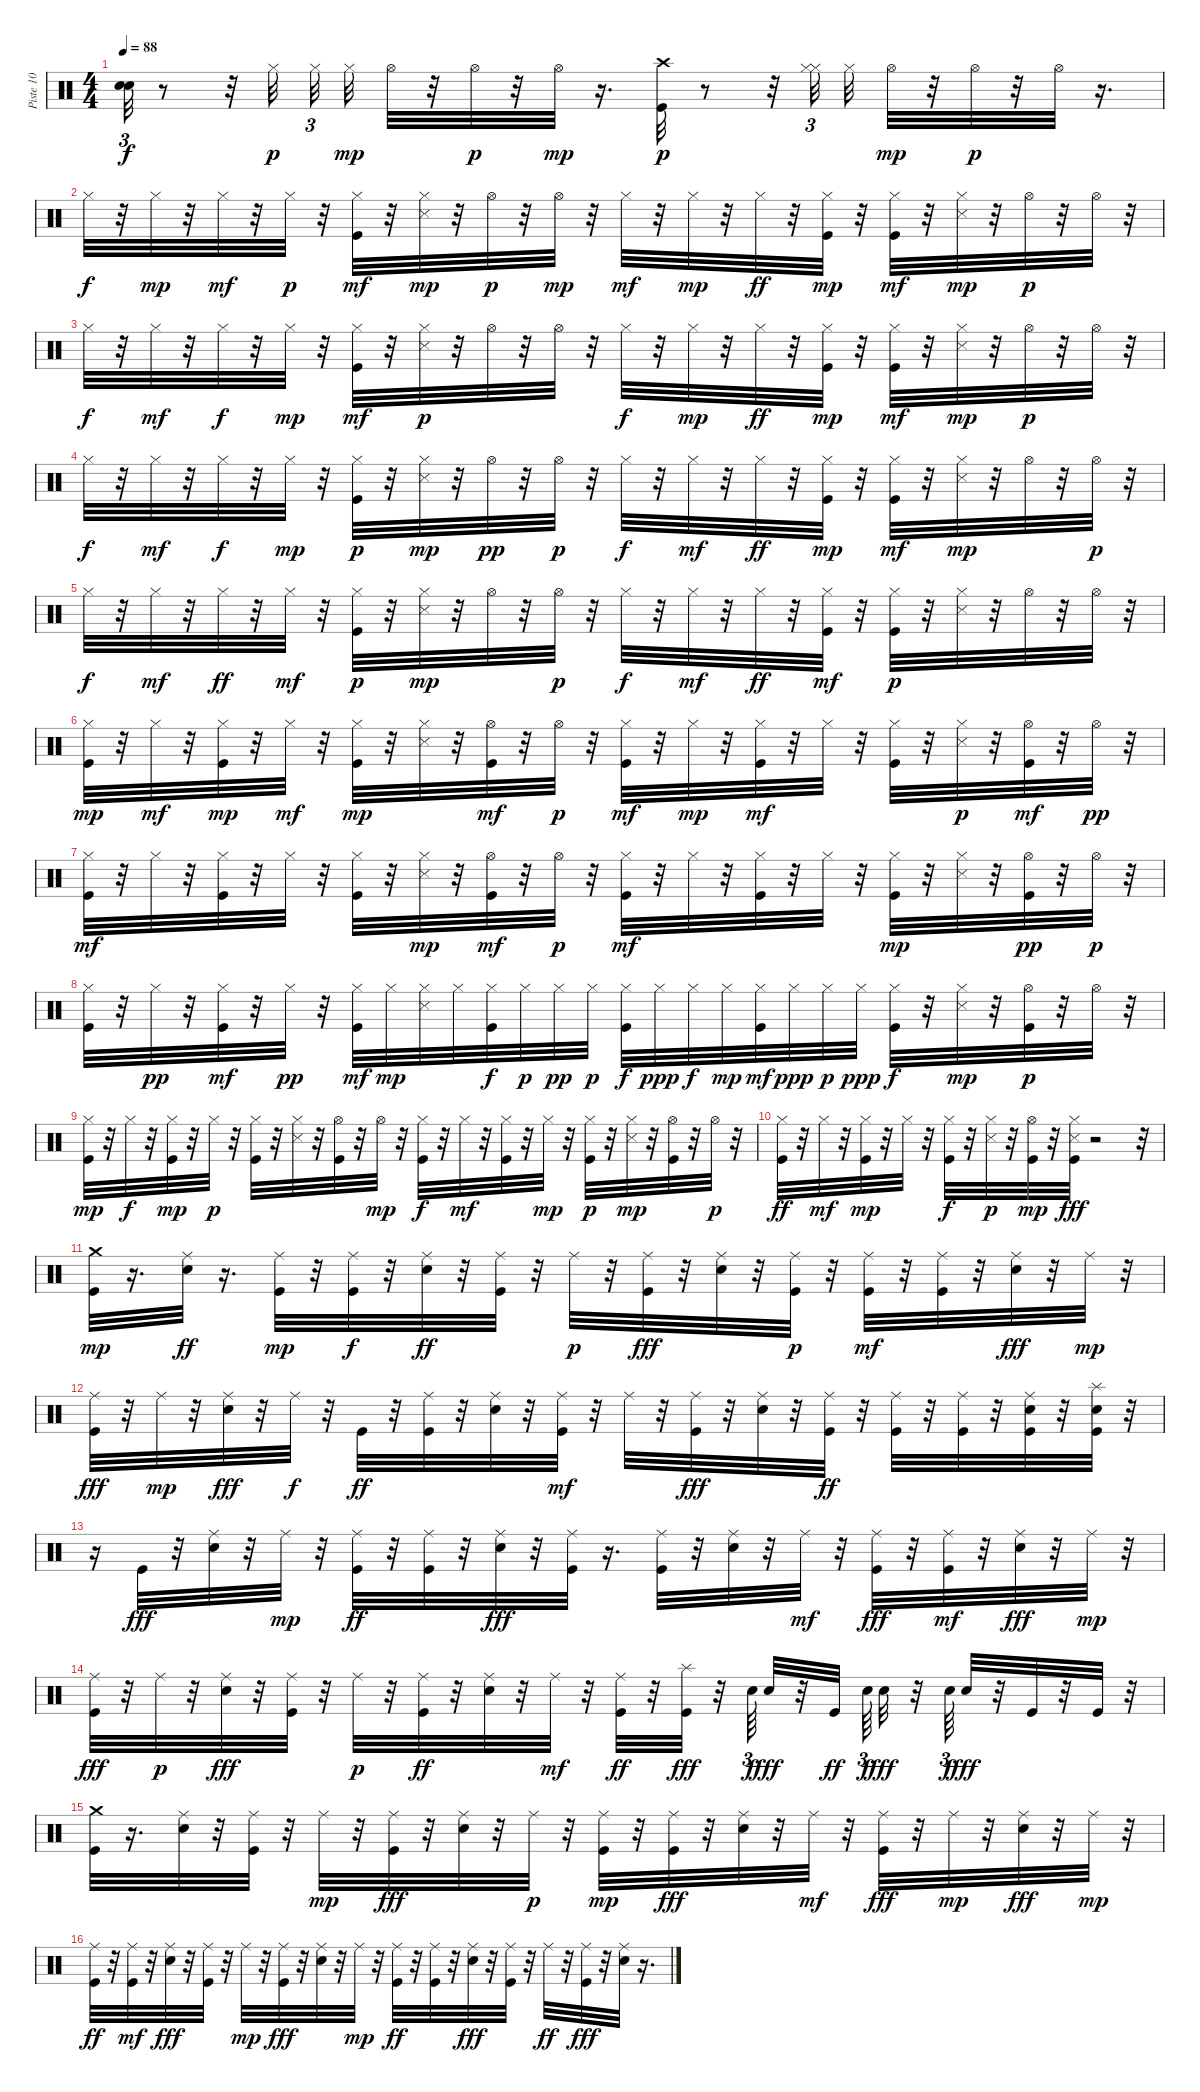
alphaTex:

\track ("Piste 10" "Piste 10") {instrument percussion}
\staff {score}
\articulation defaults
\ts (4 4)
\tempo 88
\clef neutral
\ks c
("Snare (hit)"{t} "Snare (hit)"{t}).32{tu (3 2) dy f} r.8 r.32 "Hi-Hat (closed)".32{dy p} "Hi-Hat (closed)".32{tu (3 2)} "Hi-Hat (closed)".32{dy mp} "Hi-Hat (open)".32 r.32 "Hi-Hat (open)".32{dy p} r.32 "Hi-Hat (open)".32{dy mp} r.16{d} ("Kick (hit)" "Crash high (hit)").32{dy p} r.8 r.32 ("Hi-Hat (closed)" "Hi-Hat (closed)").32{tu (3 2)} "Hi-Hat (closed)".32 "Hi-Hat (open)".32{dy mp} r.32 "Hi-Hat (open)".32{dy p} r.32 "Hi-Hat (open)".32 r.16{d} |
"Hi-Hat (closed)".32{dy f} r.32 "Hi-Hat (closed)".32{dy mp} r.32 "Hi-Hat (closed)".32{dy mf} r.32 "Hi-Hat (closed)".32{dy p} r.32 ("Hi-Hat (closed)" "Kick (hit)").32{dy mf} r.32 ("Hi-Hat (closed)" "Snare (side stick) 3").32{dy mp} r.32 "Hi-Hat (open)".32{dy p} r.32 "Hi-Hat (open)".32{dy mp} r.32 "Hi-Hat (closed)".32{dy mf} r.32 "Hi-Hat (closed)".32{dy mp} r.32 "Hi-Hat (closed)".32{dy ff} r.32 ("Kick (hit)" "Hi-Hat (closed)").32{dy mp} r.32 ("Hi-Hat (closed)" "Kick (hit)").32{dy mf} r.32 ("Hi-Hat (closed)" "Snare (side stick) 3").32{dy mp} r.32 "Hi-Hat (open)".32{dy p} r.32 "Hi-Hat (open)".32 r.32 |
"Hi-Hat (closed)".32{dy f} r.32 "Hi-Hat (closed)".32{dy mf} r.32 "Hi-Hat (closed)".32{dy f} r.32 "Hi-Hat (closed)".32{dy mp} r.32 ("Hi-Hat (closed)" "Kick (hit)").32{dy mf} r.32 ("Hi-Hat (closed)" "Snare (side stick) 3").32{dy p} r.32 "Hi-Hat (open)".32 r.32 "Hi-Hat (open)".32 r.32 "Hi-Hat (closed)".32{dy f} r.32 "Hi-Hat (closed)".32{dy mp} r.32 "Hi-Hat (closed)".32{dy ff} r.32 ("Hi-Hat (closed)" "Kick (hit)").32{dy mp} r.32 ("Hi-Hat (closed)" "Kick (hit)").32{dy mf} r.32 ("Hi-Hat (closed)" "Snare (side stick) 3").32{dy mp} r.32 "Hi-Hat (open)".32{dy p} r.32 "Hi-Hat (open)".32 r.32 |
"Hi-Hat (closed)".32{dy f} r.32 "Hi-Hat (closed)".32{dy mf} r.32 "Hi-Hat (closed)".32{dy f} r.32 "Hi-Hat (closed)".32{dy mp} r.32 ("Hi-Hat (closed)" "Kick (hit)").32{dy p} r.32 ("Hi-Hat (closed)" "Snare (side stick) 3").32{dy mp} r.32 "Hi-Hat (open)".32{dy pp} r.32 "Hi-Hat (open)".32{dy p} r.32 "Hi-Hat (closed)".32{dy f} r.32 "Hi-Hat (closed)".32{dy mf} r.32 "Hi-Hat (closed)".32{dy ff} r.32 ("Kick (hit)" "Hi-Hat (closed)").32{dy mp} r.32 ("Hi-Hat (closed)" "Kick (hit)").32{dy mf} r.32 ("Hi-Hat (closed)" "Snare (side stick) 3").32{dy mp} r.32 "Hi-Hat (open)".32 r.32 "Hi-Hat (open)".32{dy p} r.32 |
"Hi-Hat (closed)".32{dy f} r.32 "Hi-Hat (closed)".32{dy mf} r.32 "Hi-Hat (closed)".32{dy ff} r.32 "Hi-Hat (closed)".32{dy mf} r.32 ("Hi-Hat (closed)" "Kick (hit)").32{dy p} r.32 ("Hi-Hat (closed)" "Snare (side stick) 3").32{dy mp} r.32 "Hi-Hat (open)".32 r.32 "Hi-Hat (open)".32{dy p} r.32 "Hi-Hat (closed)".32{dy f} r.32 "Hi-Hat (closed)".32{dy mf} r.32 "Hi-Hat (closed)".32{dy ff} r.32 ("Hi-Hat (closed)" "Kick (hit)").32{dy mf} r.32 ("Hi-Hat (closed)" "Kick (hit)").32{dy p} r.32 ("Hi-Hat (closed)" "Snare (side stick) 3").32 r.32 "Hi-Hat (open)".32 r.32 "Hi-Hat (open)".32 r.32 |
("Hi-Hat (closed)" "Kick (hit)").32{dy mp} r.32 "Hi-Hat (closed)".32{dy mf} r.32 ("Hi-Hat (closed)" "Kick (hit)").32{dy mp} r.32 "Hi-Hat (closed)".32{dy mf} r.32 ("Kick (hit)" "Hi-Hat (closed)").32{dy mp} r.32 ("Hi-Hat (closed)" "Snare (side stick) 3").32 r.32 ("Hi-Hat (open)" "Kick (hit)").32{dy mf} r.32 "Hi-Hat (open)".32{dy p} r.32 ("Hi-Hat (closed)" "Kick (hit)").32{dy mf} r.32 "Hi-Hat (closed)".32{dy mp} r.32 ("Hi-Hat (closed)" "Kick (hit)").32{dy mf} r.32 "Hi-Hat (closed)".32 r.32 ("Hi-Hat (closed)" "Kick (hit)").32 r.32 ("Hi-Hat (closed)" "Snare (side stick) 3").32{dy p} r.32 ("Hi-Hat (open)" "Kick (hit)").32{dy mf} r.32 "Hi-Hat (open)".32{dy pp} r.32 |
("Hi-Hat (closed)" "Kick (hit)").32{dy mf} r.32 "Hi-Hat (closed)".32 r.32 ("Hi-Hat (closed)" "Kick (hit)").32 r.32 "Hi-Hat (closed)".32 r.32 ("Hi-Hat (closed)" "Kick (hit)").32 r.32 ("Hi-Hat (closed)" "Snare (side stick) 3").32{dy mp} r.32 ("Hi-Hat (open)" "Kick (hit)").32{dy mf} r.32 "Hi-Hat (open)".32{dy p} r.32 ("Hi-Hat (closed)" "Kick (hit)").32{dy mf} r.32 "Hi-Hat (closed)".32 r.32 ("Hi-Hat (closed)" "Kick (hit)").32 r.32 "Hi-Hat (closed)".32 r.32 ("Hi-Hat (closed)" "Kick (hit)").32{dy mp} r.32 ("Hi-Hat (closed)" "Snare (side stick) 3").32 r.32 ("Hi-Hat (open)" "Kick (hit)").32{dy pp} r.32 "Hi-Hat (open)".32{dy p} r.32 |
("Hi-Hat (closed)" "Kick (hit)").32 r.32 "Hi-Hat (closed)".32{dy pp} r.32 ("Hi-Hat (closed)" "Kick (hit)").32{dy mf} r.32 "Hi-Hat (closed)".32{dy pp} r.32 ("Hi-Hat (closed)" "Kick (hit)").32{dy mf} "Hi-Hat (closed)".32{dy mp} ("Hi-Hat (closed)" "Snare (side stick) 3").32 "Hi-Hat (closed)".32 ("Hi-Hat (closed)" "Kick (hit)").32{dy f} "Hi-Hat (closed)".32{dy p} "Hi-Hat (closed)".32{dy pp} "Hi-Hat (closed)".32{dy p} ("Hi-Hat (closed)" "Kick (hit)").32{dy f} "Hi-Hat (closed)".32{dy ppp} "Hi-Hat (closed)".32{dy f} "Hi-Hat (closed)".32{dy mp} ("Hi-Hat (closed)" "Kick (hit)").32{dy mf} "Hi-Hat (closed)".32{dy ppp} "Hi-Hat (closed)".32{dy p} "Hi-Hat (closed)".32{dy ppp} ("Hi-Hat (closed)" "Kick (hit)").32{dy f} r.32 ("Hi-Hat (closed)" "Snare (side stick) 3").32{dy mp} r.32 ("Hi-Hat (open)" "Kick (hit)").32{dy p} r.32 "Hi-Hat (open)".32 r.32 |
("Hi-Hat (closed)" "Kick (hit)").32{dy mp} r.32 "Hi-Hat (closed)".32{dy f} r.32 ("Hi-Hat (closed)" "Kick (hit)").32{dy mp} r.32 "Hi-Hat (closed)".32{dy p} r.32 ("Hi-Hat (closed)" "Kick (hit)").32 r.32 ("Hi-Hat (closed)" "Snare (side stick) 3").32 r.32 ("Hi-Hat (open)" "Kick (hit)").32 r.32 "Hi-Hat (open)".32{dy mp} r.32 ("Hi-Hat (closed)" "Kick (hit)").32{dy f} r.32 "Hi-Hat (closed)".32{dy mf} r.32 ("Hi-Hat (closed)" "Kick (hit)").32 r.32 "Hi-Hat (closed)".32{dy mp} r.32 ("Kick (hit)" "Hi-Hat (closed)").32{dy p} r.32 ("Hi-Hat (closed)" "Snare (side stick) 3").32{dy mp} r.32 ("Kick (hit)" "Hi-Hat (open)").32 r.32 "Hi-Hat (open)".32{dy p} r.32 |
("Kick (hit)" "Hi-Hat (closed)").32{dy ff} r.32 "Hi-Hat (closed)".32{dy mf} r.32 ("Kick (hit)" "Hi-Hat (closed)").32{dy mp} r.32 "Hi-Hat (closed)".32 r.32 ("Kick (hit)" "Hi-Hat (closed)").32{dy f} r.32 ("Hi-Hat (closed)" "Snare (side stick) 3").32{dy p} r.32 ("Hi-Hat (open)" "Kick (hit)").32{dy mp} r.32 ("Hi-Hat (closed)" "Snare (side stick) 3" "Kick (hit)").32{dy fff} r.2 r.32 |
("Kick (hit)" "Crash medium (hit)").32{dy mp} r.16{d} ("Ride (middle)" "Electric Snare (hit)").32{dy ff} r.16{d} ("Ride (middle)" "Kick (hit)").32{dy mp} r.32 ("Ride (middle)" "Kick (hit)").32{dy f} r.32 ("Ride (middle)" "Electric Snare (hit)").32{dy ff} r.32 ("Ride (middle)" "Kick (hit)").32 r.32 "Ride (middle)".32{dy p} r.32 ("Ride (middle)" "Kick (hit)").32{dy fff} r.32 ("Ride (middle)" "Electric Snare (hit)").32 r.32 ("Ride (middle)" "Kick (hit)").32{dy p} r.32 ("Ride (middle)" "Kick (hit)").32{dy mf} r.32 ("Ride (middle)" "Kick (hit)").32 r.32 ("Ride (middle)" "Electric Snare (hit)").32{dy fff} r.32 "Ride (middle)".32{dy mp} r.32 |
("Ride (middle)" "Kick (hit)").32{dy fff} r.32 "Ride (middle)".32{dy mp} r.32 ("Ride (middle)" "Electric Snare (hit)").32{dy fff} r.32 "Ride (middle)".32{dy f} r.32 "Kick (hit)".32{dy ff} r.32 ("Ride (middle)" "Kick (hit)").32 r.32 ("Electric Snare (hit)" "Ride (middle)").32 r.32 ("Kick (hit)" "Ride (middle)").32{dy mf} r.32 "Ride (middle)".32 r.32 ("Ride (middle)" "Kick (hit)").32{dy fff} r.32 ("Ride (middle)" "Electric Snare (hit)").32 r.32 ("Ride (middle)" "Kick (hit)").32{dy ff} r.32 ("Ride (middle)" "Kick (hit)").32 r.32 ("Ride (middle)" "Kick (hit)").32 r.32 ("Electric Snare (hit)" "Ride (middle)" "Kick (hit)").32 r.32 ("Kick (hit)" "Electric Snare (hit)" "Splash (hit)").32 r.32 |
r.16 "Kick (hit)".32{dy fff} r.32 ("Ride (middle)" "Electric Snare (hit)").32 r.32 "Ride (middle)".32{dy mp} r.32 ("Ride (middle)" "Kick (hit)").32{dy ff} r.32 ("Ride (middle)" "Kick (hit)").32 r.32 ("Ride (middle)" "Electric Snare (hit)").32{dy fff} r.32 ("Ride (middle)" "Kick (hit)").32 r.16{d} ("Ride (middle)" "Kick (hit)").32 r.32 ("Ride (middle)" "Electric Snare (hit)").32 r.32 "Ride (middle)".32{dy mf} r.32 ("Ride (middle)" "Kick (hit)").32{dy fff} r.32 ("Ride (middle)" "Kick (hit)").32{dy mf} r.32 ("Ride (middle)" "Electric Snare (hit)").32{dy fff} r.32 "Ride (middle)".32{dy mp} r.32 |
("Ride (middle)" "Kick (hit)").32{dy fff} r.32 "Ride (middle)".32{dy p} r.32 ("Ride (middle)" "Electric Snare (hit)").32{dy fff} r.32 ("Ride (middle)" "Kick (hit)").32 r.32 "Ride (middle)".32{dy p} r.32 ("Ride (middle)" "Kick (hit)").32{dy ff} r.32 ("Electric Snare (hit)" "Ride (middle)").32 r.32 "Ride (middle)".32{dy mf} r.32 ("Kick (hit)" "Ride (middle)").32{dy ff} r.32 ("Splash (hit)" "Kick (hit)").32{dy fff} r.32 "Electric Snare (hit)".64{tu (3 2) dy f} "Electric Snare (hit)".32{dy fff} r.32 "Kick (hit)".32{dy ff} "Electric Snare (hit)".64{tu (3 2) dy f} "Electric Snare (hit)".32{dy fff} r.32 "Electric Snare (hit)".64{tu (3 2) dy f} "Electric Snare (hit)".32{dy fff} r.32 "Kick (hit)".32 r.32 "Kick (hit)".32 r.32 |
("Crash medium (hit)" "Kick (hit)").32 r.16{d} ("Ride (middle)" "Electric Snare (hit)").32 r.32 ("Ride (middle)" "Kick (hit)").32 r.32 "Ride (middle)".32{dy mp} r.32 ("Ride (middle)" "Kick (hit)").32{dy fff} r.32 ("Ride (middle)" "Electric Snare (hit)").32 r.32 "Ride (middle)".32{dy p} r.32 ("Ride (middle)" "Kick (hit)").32{dy mp} r.32 ("Ride (middle)" "Kick (hit)").32{dy fff} r.32 ("Ride (middle)" "Electric Snare (hit)").32 r.32 "Ride (middle)".32{dy mf} r.32 ("Ride (middle)" "Kick (hit)").32{dy fff} r.32 "Ride (middle)".32{dy mp} r.32 ("Ride (middle)" "Electric Snare (hit)").32{dy fff} r.32 "Ride (middle)".32{dy mp} r.32 |
("Ride (middle)" "Kick (hit)").32{dy ff} r.32 ("Ride (middle)" "Kick (hit)").32{dy mf} r.32 ("Ride (middle)" "Electric Snare (hit)").32{dy fff} r.32 ("Ride (middle)" "Kick (hit)").32 r.32 "Ride (middle)".32{dy mp} r.32 ("Ride (middle)" "Kick (hit)").32{dy fff} r.32 ("Ride (middle)" "Electric Snare (hit)").32 r.32 "Ride (middle)".32{dy mp} r.32 ("Ride (middle)" "Kick (hit)").32{dy ff} r.32 ("Ride (middle)" "Kick (hit)").32 r.32 ("Ride (middle)" "Electric Snare (hit)").32{dy fff} r.32 ("Ride (middle)" "Kick (hit)").32 r.32 "Ride (middle)".32{dy ff} r.32 ("Ride (middle)" "Kick (hit)").32{dy fff} r.32 ("Ride (middle)" "Electric Snare (hit)").32 r.16{d}
